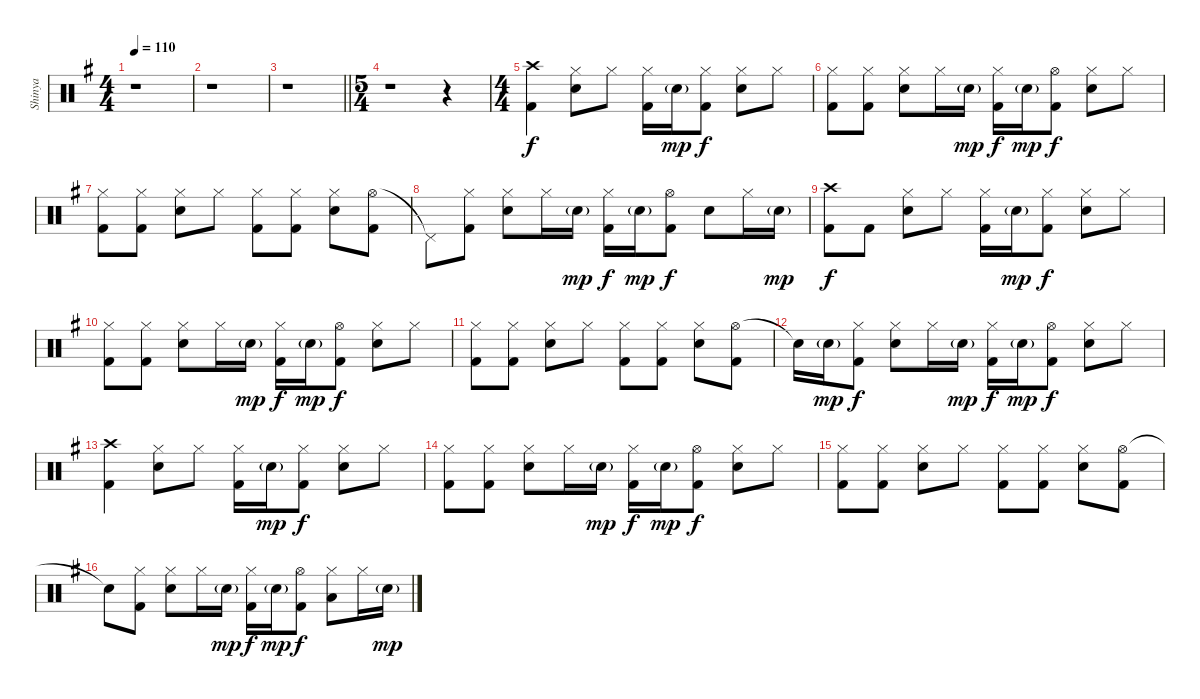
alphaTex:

\track ("Shinya" "Shinya") {instrument percussion}
\staff {score}
\articulation defaults
\ts (4 4)
\tempo 110
\clef neutral
\ks g
r.1{dy f} |
r.1 |
\barLineRight lightlight
r.1 |
\ts (5 4)
r.1 r.4 |
\ts (4 4)
("Crash high (hit)" "Kick (hit) 2").4 ("Hi-Hat (closed)" "Electric Snare (hit)").8 "Hi-Hat (closed)".8 ("Hi-Hat (closed)" "Kick (hit) 2").16 "Electric Snare (hit)"{g}.16{dy mp} ("Hi-Hat (closed)" "Kick (hit) 2").8{dy f} ("Hi-Hat (closed)" "Electric Snare (hit)").8 "Hi-Hat (closed)".8 |
("Hi-Hat (closed)" "Kick (hit) 2").8 ("Hi-Hat (closed)" "Kick (hit) 2").8 ("Hi-Hat (closed)" "Electric Snare (hit)").8 "Hi-Hat (closed)".16 "Electric Snare (hit)"{g}.16{dy mp} ("Hi-Hat (closed)" "Kick (hit) 2").16{dy f} "Electric Snare (hit)"{g}.16{dy mp} ("Hi-Hat (open)" "Kick (hit) 2").8{dy f} ("Hi-Hat (closed)" "Electric Snare (hit)").8 "Hi-Hat (closed)".8 |
("Hi-Hat (closed)" "Kick (hit) 2").8 ("Hi-Hat (closed)" "Kick (hit) 2").8 ("Hi-Hat (closed)" "Electric Snare (hit)").8 "Hi-Hat (closed)".8 ("Hi-Hat (closed)" "Kick (hit) 2").8 ("Hi-Hat (closed)" "Kick (hit) 2").8 ("Hi-Hat (closed)" "Electric Snare (hit)").8 ("Hi-Hat (open)" "Kick (hit) 2").8 |
"Pedal Hi-Hat (hit)"{t}.8 ("Hi-Hat (closed)" "Kick (hit) 2").8 ("Hi-Hat (closed)" "Electric Snare (hit)").8 "Hi-Hat (closed)".16 "Electric Snare (hit)"{g}.16{dy mp} ("Hi-Hat (closed)" "Kick (hit) 2").16{dy f} "Electric Snare (hit)"{g}.16{dy mp} ("Hi-Hat (open)" "Kick (hit) 2").8{dy f} "Electric Snare (hit)".8 "Hi-Hat (closed)".16 "Electric Snare (hit)"{g}.16{dy mp} |
("Crash high (hit)" "Kick (hit) 2").8{dy f} "Kick (hit) 2".8 ("Hi-Hat (closed)" "Electric Snare (hit)").8 "Hi-Hat (closed)".8 ("Hi-Hat (closed)" "Kick (hit) 2").16 "Electric Snare (hit)"{g}.16{dy mp} ("Hi-Hat (closed)" "Kick (hit) 2").8{dy f} ("Hi-Hat (closed)" "Electric Snare (hit)").8 "Hi-Hat (closed)".8 |
("Hi-Hat (closed)" "Kick (hit) 2").8 ("Hi-Hat (closed)" "Kick (hit) 2").8 ("Hi-Hat (closed)" "Electric Snare (hit)").8 "Hi-Hat (closed)".16 "Electric Snare (hit)"{g}.16{dy mp} ("Hi-Hat (closed)" "Kick (hit) 2").16{dy f} "Electric Snare (hit)"{g}.16{dy mp} ("Hi-Hat (open)" "Kick (hit) 2").8{dy f} ("Hi-Hat (closed)" "Electric Snare (hit)").8 "Hi-Hat (closed)".8 |
("Hi-Hat (closed)" "Kick (hit) 2").8 ("Hi-Hat (closed)" "Kick (hit) 2").8 ("Hi-Hat (closed)" "Electric Snare (hit)").8 "Hi-Hat (closed)".8 ("Hi-Hat (closed)" "Kick (hit) 2").8 ("Hi-Hat (closed)" "Kick (hit) 2").8 ("Hi-Hat (closed)" "Electric Snare (hit)").8 ("Hi-Hat (open)" "Kick (hit) 2").8 |
"Snare (hit)"{t}.16 "Electric Snare (hit)"{g}.16{dy mp} ("Hi-Hat (closed)" "Kick (hit) 2").8{dy f} ("Hi-Hat (closed)" "Electric Snare (hit)").8 "Hi-Hat (closed)".16 "Electric Snare (hit)"{g}.16{dy mp} ("Hi-Hat (closed)" "Kick (hit) 2").16{dy f} "Electric Snare (hit)"{g}.16{dy mp} ("Hi-Hat (open)" "Kick (hit) 2").8{dy f} ("Hi-Hat (closed)" "Electric Snare (hit)").8 "Hi-Hat (closed)".8 |
("Crash high (hit)" "Kick (hit) 2").4 ("Hi-Hat (closed)" "Electric Snare (hit)").8 "Hi-Hat (closed)".8 ("Hi-Hat (closed)" "Kick (hit) 2").16 "Electric Snare (hit)"{g}.16{dy mp} ("Hi-Hat (closed)" "Kick (hit) 2").8{dy f} ("Hi-Hat (closed)" "Electric Snare (hit)").8 "Hi-Hat (closed)".8 |
("Hi-Hat (closed)" "Kick (hit) 2").8 ("Hi-Hat (closed)" "Kick (hit) 2").8 ("Hi-Hat (closed)" "Electric Snare (hit)").8 "Hi-Hat (closed)".16 "Electric Snare (hit)"{g}.16{dy mp} ("Hi-Hat (closed)" "Kick (hit) 2").16{dy f} "Electric Snare (hit)"{g}.16{dy mp} ("Hi-Hat (open)" "Kick (hit) 2").8{dy f} ("Hi-Hat (closed)" "Electric Snare (hit)").8 "Hi-Hat (closed)".8 |
("Hi-Hat (closed)" "Kick (hit) 2").8 ("Hi-Hat (closed)" "Kick (hit) 2").8 ("Hi-Hat (closed)" "Electric Snare (hit)").8 "Hi-Hat (closed)".8 ("Hi-Hat (closed)" "Kick (hit) 2").8 ("Hi-Hat (closed)" "Kick (hit) 2").8 ("Hi-Hat (closed)" "Electric Snare (hit)").8 ("Hi-Hat (open)" "Kick (hit) 2").8 |
"Snare (hit)"{t}.8 ("Hi-Hat (closed)" "Kick (hit) 2").8 ("Hi-Hat (closed)" "Electric Snare (hit)").8 "Hi-Hat (closed)".16 "Electric Snare (hit)"{g}.16{dy mp} ("Hi-Hat (closed)" "Kick (hit) 2").16{dy f} "Electric Snare (hit)"{g}.16{dy mp} ("Hi-Hat (open)" "Kick (hit) 2").8{dy f} ("Hi-Hat (closed)" "Low Floor Tom (hit)").8 "Hi-Hat (closed)".16 "Electric Snare (hit)"{g}.16{dy mp}
